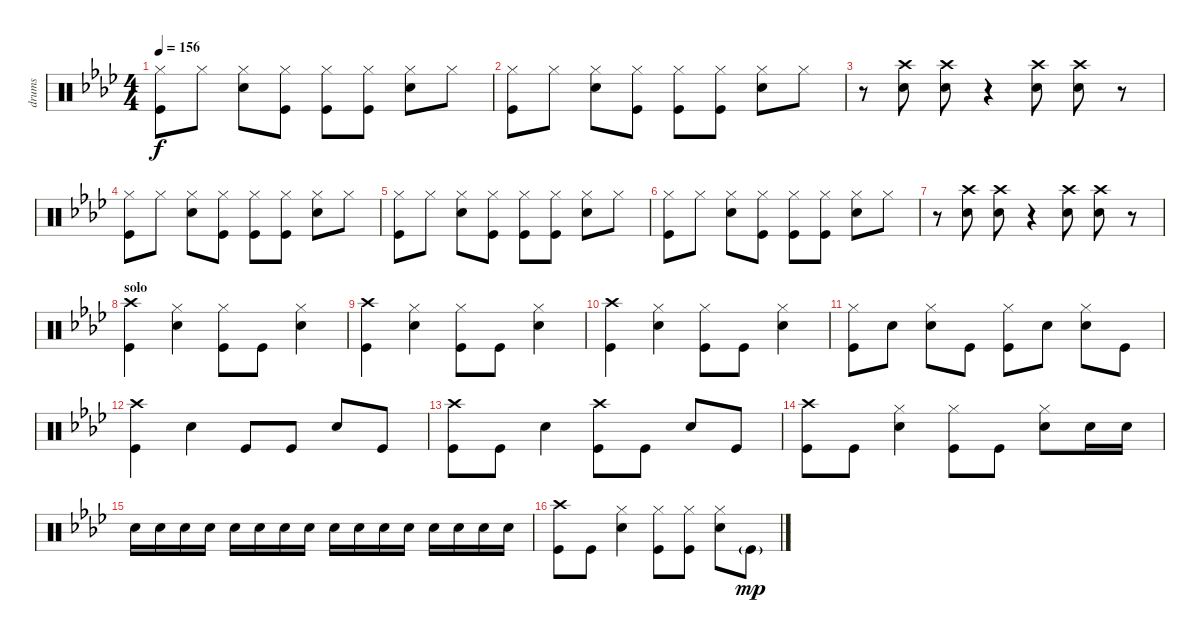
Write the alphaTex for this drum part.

\track ("drums" "drums") {instrument percussion}
\staff {score}
\articulation defaults
\ts (4 4)
\tempo 156
\clef neutral
\ks ab
("Hi-Hat (closed)" "Kick (hit)").8{dy f} "Hi-Hat (closed)".8 ("Hi-Hat (closed)" "Snare (hit) 2").8 ("Hi-Hat (closed)" "Kick (hit)").8 ("Hi-Hat (closed)" "Kick (hit)").8 ("Hi-Hat (closed)" "Kick (hit)").8 ("Hi-Hat (closed)" "Snare (hit) 2").8 "Hi-Hat (closed)".8 |
("Hi-Hat (closed)" "Kick (hit)").8 "Hi-Hat (closed)".8 ("Hi-Hat (closed)" "Snare (hit) 2").8 ("Hi-Hat (closed)" "Kick (hit)").8 ("Hi-Hat (closed)" "Kick (hit)").8 ("Hi-Hat (closed)" "Kick (hit)").8 ("Hi-Hat (closed)" "Snare (hit) 2").8 "Hi-Hat (closed)".8 |
r.8 ("Crash high (hit)" "Snare (hit) 2").8 ("Crash high (hit)" "Snare (hit) 2").8 r.4 ("Crash high (hit)" "Snare (hit) 2").8 ("Crash high (hit)" "Snare (hit) 2").8 r.8 |
("Hi-Hat (closed)" "Kick (hit)").8 "Hi-Hat (closed)".8 ("Hi-Hat (closed)" "Snare (hit) 2").8 ("Hi-Hat (closed)" "Kick (hit)").8 ("Hi-Hat (closed)" "Kick (hit)").8 ("Hi-Hat (closed)" "Kick (hit)").8 ("Hi-Hat (closed)" "Snare (hit) 2").8 "Hi-Hat (closed)".8 |
("Hi-Hat (closed)" "Kick (hit)").8 "Hi-Hat (closed)".8 ("Hi-Hat (closed)" "Snare (hit) 2").8 ("Hi-Hat (closed)" "Kick (hit)").8 ("Hi-Hat (closed)" "Kick (hit)").8 ("Hi-Hat (closed)" "Kick (hit)").8 ("Hi-Hat (closed)" "Snare (hit) 2").8 "Hi-Hat (closed)".8 |
("Hi-Hat (closed)" "Kick (hit)").8 "Hi-Hat (closed)".8 ("Hi-Hat (closed)" "Snare (hit) 2").8 ("Hi-Hat (closed)" "Kick (hit)").8 ("Hi-Hat (closed)" "Kick (hit)").8 ("Hi-Hat (closed)" "Kick (hit)").8 ("Hi-Hat (closed)" "Snare (hit) 2").8 "Hi-Hat (closed)".8 |
r.8 ("Crash high (hit)" "Snare (hit) 2").8 ("Crash high (hit)" "Snare (hit) 2").8 r.4 ("Crash high (hit)" "Snare (hit) 2").8 ("Crash high (hit)" "Snare (hit) 2").8 r.8 |
\section ("" "solo")
("Crash high (hit)" "Kick (hit)").4 ("Hi-Hat (closed)" "Snare (hit) 2").4 ("Hi-Hat (closed)" "Kick (hit)").8 "Kick (hit)".8 ("Hi-Hat (closed)" "Snare (hit) 2").4 |
("Crash high (hit)" "Kick (hit)").4 ("Hi-Hat (closed)" "Snare (hit) 2").4 ("Hi-Hat (closed)" "Kick (hit)").8 "Kick (hit)".8 ("Hi-Hat (closed)" "Snare (hit) 2").4 |
("Crash high (hit)" "Kick (hit)").4 ("Hi-Hat (closed)" "Snare (hit) 2").4 ("Hi-Hat (closed)" "Kick (hit)").8 "Kick (hit)".8 ("Hi-Hat (closed)" "Snare (hit) 2").4 |
("Hi-Hat (closed)" "Kick (hit)").8 "Snare (hit) 2".8 ("Hi-Hat (closed)" "Snare (hit) 2").8 "Kick (hit)".8 ("Hi-Hat (closed)" "Kick (hit)").8 "Snare (hit) 2".8 ("Hi-Hat (closed)" "Snare (hit) 2").8 "Kick (hit)".8 |
("Crash high (hit)" "Kick (hit)").4 "Snare (hit) 2".4 "Kick (hit)".8 "Kick (hit)".8 "Snare (hit) 2".8 "Kick (hit)".8 |
("Crash high (hit)" "Kick (hit)").8 "Kick (hit)".8 "Snare (hit) 2".4 ("Crash high (hit)" "Kick (hit)").8 "Kick (hit)".8 "Snare (hit) 2".8 "Kick (hit)".8 |
("Crash high (hit)" "Kick (hit)").8 "Kick (hit)".8 ("Hi-Hat (closed)" "Snare (hit) 2").4 ("Hi-Hat (closed)" "Kick (hit)").8 "Kick (hit)".8 ("Hi-Hat (closed)" "Snare (hit) 2").8 "Snare (hit) 2".16 "Snare (hit) 2".16 |
"Snare (hit) 2".16 "Snare (hit) 2".16 "Snare (hit) 2".16 "Snare (hit) 2".16 "Snare (hit) 2".16 "Snare (hit) 2".16 "Snare (hit) 2".16 "Snare (hit) 2".16 "Snare (hit) 2".16 "Snare (hit) 2".16 "Snare (hit) 2".16 "Snare (hit) 2".16 "Snare (hit) 2".16 "Snare (hit) 2".16 "Snare (hit) 2".16 "Snare (hit) 2".16 |
("Crash high (hit)" "Kick (hit)").8 "Kick (hit)".8 ("Hi-Hat (closed)" "Snare (hit) 2").4 ("Hi-Hat (closed)" "Kick (hit)").8 ("Hi-Hat (closed)" "Kick (hit)").8 ("Hi-Hat (closed)" "Snare (hit) 2").8 "Kick (hit)"{g}.8{dy mp}
